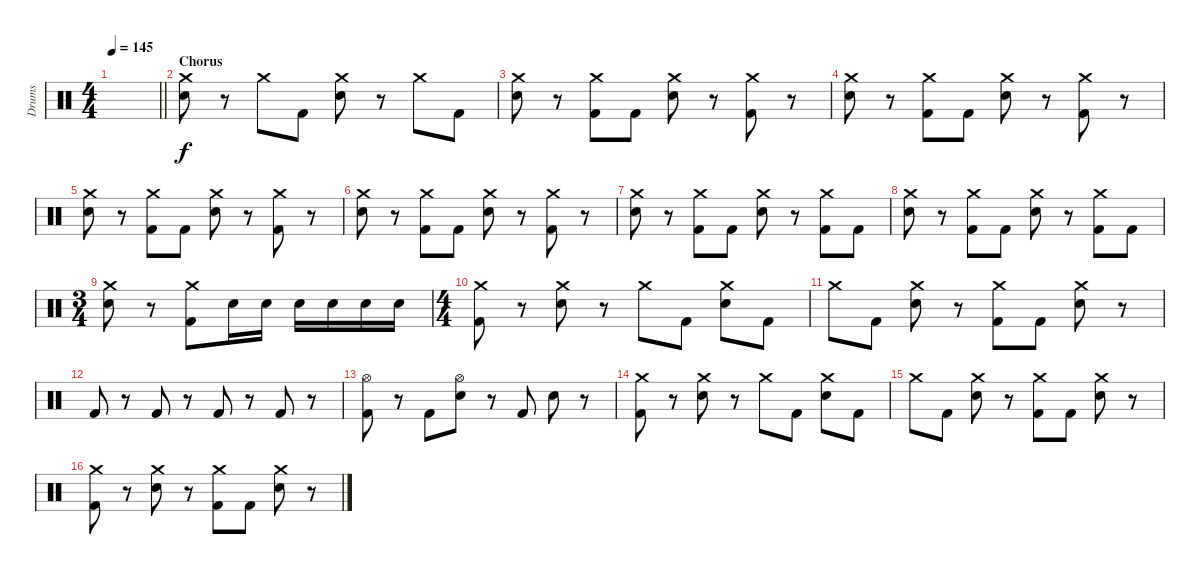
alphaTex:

\track ("Drums" "Drums") {instrument percussion}
\staff {score}
\articulation defaults
\ts (4 4)
\tempo 145
\clef neutral
\barLineRight lightlight
\ks c
|
\section ("" "Chorus")
("Crash medium (hit)" "Electric Snare (hit)").8 r.8 "Crash medium (hit)".8 "Kick (hit) 2".8 ("Crash medium (hit)" "Electric Snare (hit)").8 r.8 "Crash medium (hit)".8 "Kick (hit) 2".8 |
("Crash medium (hit)" "Electric Snare (hit)").8 r.8 ("Crash medium (hit)" "Kick (hit) 2").8 "Kick (hit) 2".8 ("Crash medium (hit)" "Electric Snare (hit)").8 r.8 ("Crash medium (hit)" "Kick (hit) 2").8 r.8 |
("Crash medium (hit)" "Electric Snare (hit)").8 r.8 ("Crash medium (hit)" "Kick (hit) 2").8 "Kick (hit) 2".8 ("Crash medium (hit)" "Electric Snare (hit)").8 r.8 ("Crash medium (hit)" "Kick (hit) 2").8 r.8 |
("Crash medium (hit)" "Electric Snare (hit)").8 r.8 ("Crash medium (hit)" "Kick (hit) 2").8 "Kick (hit) 2".8 ("Crash medium (hit)" "Electric Snare (hit)").8 r.8 ("Crash medium (hit)" "Kick (hit) 2").8 r.8 |
("Crash medium (hit)" "Electric Snare (hit)").8 r.8 ("Crash medium (hit)" "Kick (hit) 2").8 "Kick (hit) 2".8 ("Crash medium (hit)" "Electric Snare (hit)").8 r.8 ("Crash medium (hit)" "Kick (hit) 2").8 r.8 |
("Crash medium (hit)" "Electric Snare (hit)").8 r.8 ("Crash medium (hit)" "Kick (hit) 2").8 "Kick (hit) 2".8 ("Crash medium (hit)" "Electric Snare (hit)").8 r.8 ("Crash medium (hit)" "Kick (hit) 2").8 "Kick (hit) 2".8 |
("Crash medium (hit)" "Electric Snare (hit)").8 r.8 ("Crash medium (hit)" "Kick (hit) 2").8 "Kick (hit) 2".8 ("Crash medium (hit)" "Electric Snare (hit)").8 r.8 ("Crash medium (hit)" "Kick (hit) 2").8 "Kick (hit) 2".8 |
\ts (3 4)
("Crash medium (hit)" "Electric Snare (hit)").8 r.8 ("Crash medium (hit)" "Kick (hit) 2").8 "Electric Snare (hit)".16 "Electric Snare (hit)".16 "Electric Snare (hit)".16 "Electric Snare (hit)".16 "Electric Snare (hit)".16 "Electric Snare (hit)".16 |
\ts (4 4)
("Crash medium (hit)" "Kick (hit) 2").8 r.8 ("Crash medium (hit)" "Electric Snare (hit)").8 r.8 "Crash medium (hit)".8 "Kick (hit) 2".8 ("Crash medium (hit)" "Electric Snare (hit)").8 "Kick (hit) 2".8 |
"Crash medium (hit)".8 "Kick (hit) 2".8 ("Crash medium (hit)" "Electric Snare (hit)").8 r.8 ("Crash medium (hit)" "Kick (hit) 2").8 "Kick (hit) 2".8 ("Crash medium (hit)" "Electric Snare (hit)").8 r.8 |
"Kick (hit) 2".8 r.8 "Kick (hit) 2".8 r.8 "Kick (hit) 2".8 r.8 "Kick (hit) 2".8 r.8 |
("Hi-Hat (open)" "Kick (hit) 2").8 r.8 "Kick (hit) 2".8 ("Hi-Hat (open)" "Electric Snare (hit)").8 r.8 "Kick (hit) 2".8 "Electric Snare (hit)".8 r.8 |
("Crash medium (hit)" "Kick (hit) 2").8 r.8 ("Crash medium (hit)" "Electric Snare (hit)").8 r.8 "Crash medium (hit)".8 "Kick (hit) 2".8 ("Crash medium (hit)" "Electric Snare (hit)").8 "Kick (hit) 2".8 |
"Crash medium (hit)".8 "Kick (hit) 2".8 ("Crash medium (hit)" "Electric Snare (hit)").8 r.8 ("Crash medium (hit)" "Kick (hit) 2").8 "Kick (hit) 2".8 ("Crash medium (hit)" "Electric Snare (hit)").8 r.8 |
("Crash medium (hit)" "Kick (hit) 2").8 r.8 ("Crash medium (hit)" "Electric Snare (hit)").8 r.8 ("Crash medium (hit)" "Kick (hit) 2").8 "Kick (hit) 2".8 ("Crash medium (hit)" "Electric Snare (hit)").8 r.8
